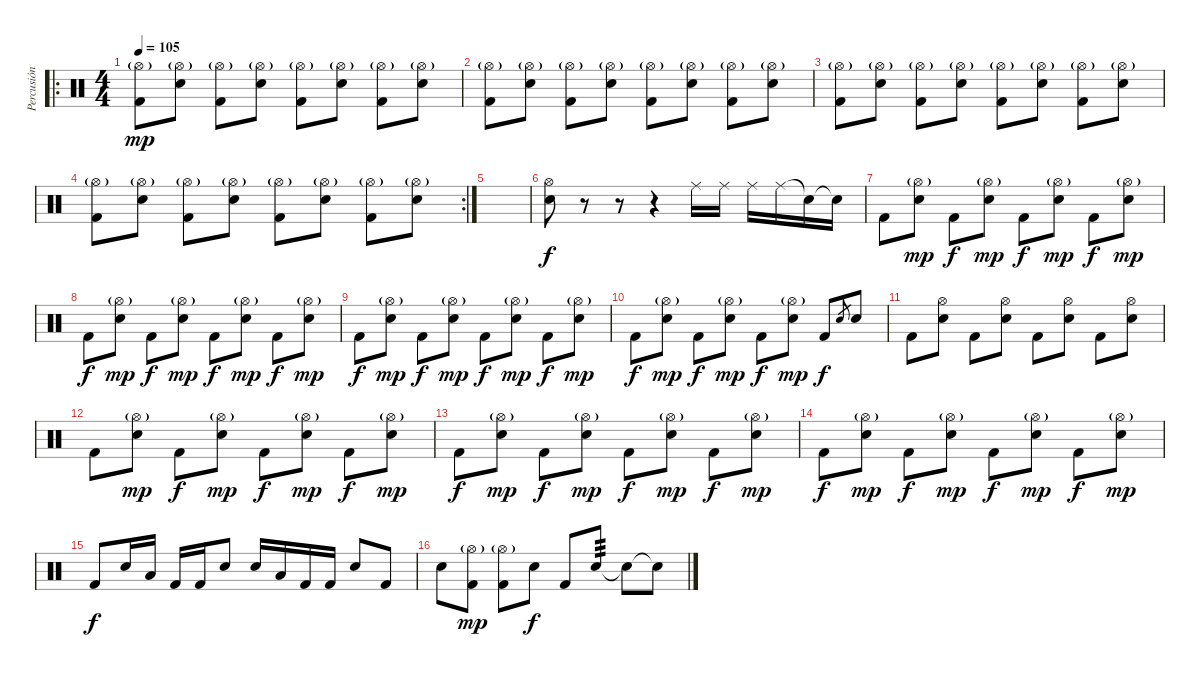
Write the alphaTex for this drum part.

\track ("Percusión" "Percusión") {instrument percussion}
\staff {score}
\articulation defaults
\ro
\ts (4 4)
\tempo 105
\clef neutral
\ks c
("Hi-Hat (open)"{g} "Kick (hit) 2").8{dy mp} ("Hi-Hat (open)"{g} "Electric Snare (hit)").8 ("Hi-Hat (open)"{g} "Kick (hit) 2").8 ("Hi-Hat (open)"{g} "Electric Snare (hit)").8 ("Hi-Hat (open)"{g} "Kick (hit) 2").8 ("Hi-Hat (open)"{g} "Electric Snare (hit)").8 ("Hi-Hat (open)"{g} "Kick (hit) 2").8 ("Hi-Hat (open)"{g} "Electric Snare (hit)").8 |
("Hi-Hat (open)"{g} "Kick (hit) 2").8 ("Hi-Hat (open)"{g} "Electric Snare (hit)").8 ("Hi-Hat (open)"{g} "Kick (hit) 2").8 ("Hi-Hat (open)"{g} "Electric Snare (hit)").8 ("Hi-Hat (open)"{g} "Kick (hit) 2").8 ("Hi-Hat (open)"{g} "Electric Snare (hit)").8 ("Hi-Hat (open)"{g} "Kick (hit) 2").8 ("Hi-Hat (open)"{g} "Electric Snare (hit)").8 |
("Hi-Hat (open)"{g} "Kick (hit) 2").8 ("Hi-Hat (open)"{g} "Electric Snare (hit)").8 ("Hi-Hat (open)"{g} "Kick (hit) 2").8 ("Hi-Hat (open)"{g} "Electric Snare (hit)").8 ("Hi-Hat (open)"{g} "Kick (hit) 2").8 ("Hi-Hat (open)"{g} "Electric Snare (hit)").8 ("Hi-Hat (open)"{g} "Kick (hit) 2").8 ("Hi-Hat (open)"{g} "Electric Snare (hit)").8 |
\rc 2
("Hi-Hat (open)"{g} "Kick (hit) 2").8 ("Hi-Hat (open)"{g} "Electric Snare (hit)").8 ("Hi-Hat (open)"{g} "Kick (hit) 2").8 ("Hi-Hat (open)"{g} "Electric Snare (hit)").8 ("Hi-Hat (open)"{g} "Kick (hit) 2").8 ("Hi-Hat (open)"{g} "Electric Snare (hit)").8 ("Hi-Hat (open)"{g} "Kick (hit) 2").8 ("Hi-Hat (open)"{g} "Electric Snare (hit)").8 |
|
("Hi-Hat (open)" "Electric Snare (hit)").8{dy f} r.8 r.8 r.4 "Ride (middle)".16 "Ride (middle)".16 "Ride (middle)".16 "Ride (middle)".16 "Snare (hit)"{t}.16 "Snare (hit)"{t}.16 |
"Kick (hit) 2".8 ("Hi-Hat (open)"{g} "Electric Snare (hit)").8{dy mp} "Kick (hit) 2".8{dy f} ("Hi-Hat (open)"{g} "Electric Snare (hit)").8{dy mp} "Kick (hit) 2".8{dy f} ("Hi-Hat (open)"{g} "Electric Snare (hit)").8{dy mp} "Kick (hit) 2".8{dy f} ("Hi-Hat (open)"{g} "Electric Snare (hit)").8{dy mp} |
"Kick (hit) 2".8{dy f} ("Hi-Hat (open)"{g} "Electric Snare (hit)").8{dy mp} "Kick (hit) 2".8{dy f} ("Hi-Hat (open)"{g} "Electric Snare (hit)").8{dy mp} "Kick (hit) 2".8{dy f} ("Hi-Hat (open)"{g} "Electric Snare (hit)").8{dy mp} "Kick (hit) 2".8{dy f} ("Hi-Hat (open)"{g} "Electric Snare (hit)").8{dy mp} |
"Kick (hit) 2".8{dy f} ("Hi-Hat (open)"{g} "Electric Snare (hit)").8{dy mp} "Kick (hit) 2".8{dy f} ("Hi-Hat (open)"{g} "Electric Snare (hit)").8{dy mp} "Kick (hit) 2".8{dy f} ("Hi-Hat (open)"{g} "Electric Snare (hit)").8{dy mp} "Kick (hit) 2".8{dy f} ("Hi-Hat (open)"{g} "Electric Snare (hit)").8{dy mp} |
"Kick (hit) 2".8{dy f} ("Hi-Hat (open)"{g} "Electric Snare (hit)").8{dy mp} "Kick (hit) 2".8{dy f} ("Hi-Hat (open)"{g} "Electric Snare (hit)").8{dy mp} "Kick (hit) 2".8{dy f} ("Hi-Hat (open)"{g} "Electric Snare (hit)").8{dy mp} "Kick (hit) 2".8{dy f} "Electric Snare (hit)".8{gr} "Electric Snare (hit)".8 |
"Kick (hit) 2".8 ("Hi-Hat (open)" "Electric Snare (hit)").8 "Kick (hit) 2".8 ("Hi-Hat (open)" "Electric Snare (hit)").8 "Kick (hit) 2".8 ("Hi-Hat (open)" "Electric Snare (hit)").8 "Kick (hit) 2".8 ("Hi-Hat (open)" "Electric Snare (hit)").8 |
"Kick (hit) 2".8 ("Hi-Hat (open)"{g} "Electric Snare (hit)").8{dy mp} "Kick (hit) 2".8{dy f} ("Hi-Hat (open)"{g} "Electric Snare (hit)").8{dy mp} "Kick (hit) 2".8{dy f} ("Hi-Hat (open)"{g} "Electric Snare (hit)").8{dy mp} "Kick (hit) 2".8{dy f} ("Hi-Hat (open)"{g} "Electric Snare (hit)").8{dy mp} |
"Kick (hit) 2".8{dy f} ("Hi-Hat (open)"{g} "Electric Snare (hit)").8{dy mp} "Kick (hit) 2".8{dy f} ("Hi-Hat (open)"{g} "Electric Snare (hit)").8{dy mp} "Kick (hit) 2".8{dy f} ("Hi-Hat (open)"{g} "Electric Snare (hit)").8{dy mp} "Kick (hit) 2".8{dy f} ("Hi-Hat (open)"{g} "Electric Snare (hit)").8{dy mp} |
"Kick (hit) 2".8{dy f} ("Hi-Hat (open)"{g} "Electric Snare (hit)").8{dy mp} "Kick (hit) 2".8{dy f} ("Hi-Hat (open)"{g} "Electric Snare (hit)").8{dy mp} "Kick (hit) 2".8{dy f} ("Hi-Hat (open)"{g} "Electric Snare (hit)").8{dy mp} "Kick (hit) 2".8{dy f} ("Hi-Hat (open)"{g} "Electric Snare (hit)").8{dy mp} |
"Kick (hit) 2".8{dy f} "Electric Snare (hit)".16 "Low Tom (hit)".16 "Kick (hit) 2".16 "Kick (hit) 2".16 "Electric Snare (hit)".8 "Electric Snare (hit)".16 "Low Tom (hit)".16 "Kick (hit) 2".16 "Kick (hit) 2".16 "Electric Snare (hit)".8 "Kick (hit) 2".8 |
"Electric Snare (hit)".8 ("Hi-Hat (open)"{g} "Kick (hit) 2").8{dy mp} ("Hi-Hat (open)"{g} "Kick (hit) 2").8 "Electric Snare (hit)".8{dy f} "Kick (hit) 2".8 "Electric Snare (hit)".8{tp 3} "Snare (hit)"{t}.8 "Snare (hit)"{t}.8
